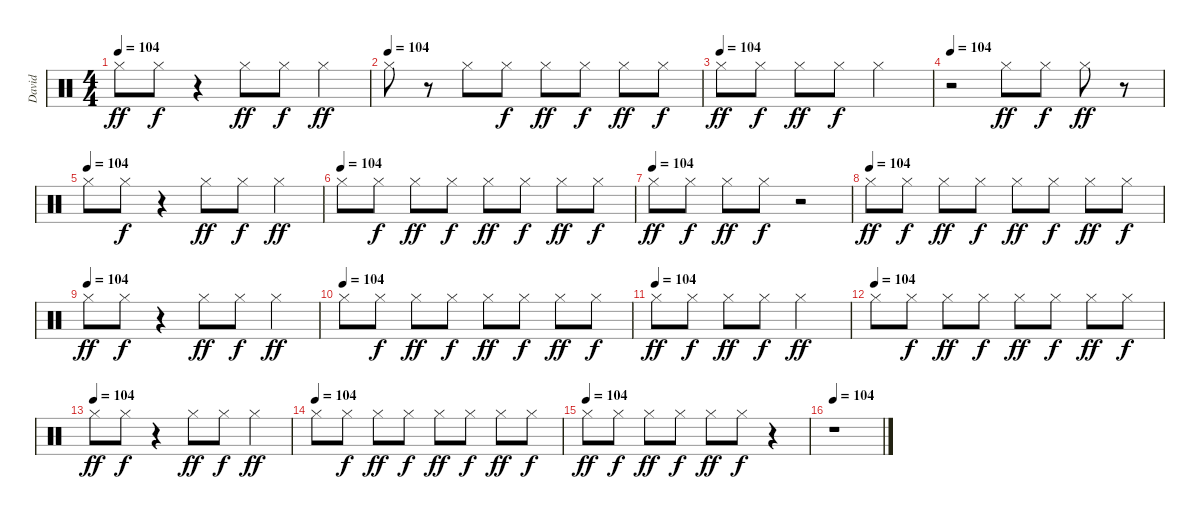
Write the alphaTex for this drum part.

\track ("David" "David") {instrument percussion}
\staff {score}
\articulation defaults
\ts (4 4)
\tempo 104
\clef neutral
\ks c "Hi-Hat (closed)".8{dy ff} "Hi-Hat (closed)".8{dy f}
r.4 "Hi-Hat (closed)".8{dy ff} "Hi-Hat (closed)".8{dy f} "Hi-Hat (closed)".4{dy ff} |
\tempo (104)
"Hi-Hat (closed)".8 r.8 "Hi-Hat (closed)".8 "Hi-Hat (closed)".8{dy f} "Hi-Hat (closed)".8{dy ff} "Hi-Hat (closed)".8{dy f} "Hi-Hat (closed)".8{dy ff} "Hi-Hat (closed)".8{dy f} |
\tempo (104)
"Hi-Hat (closed)".8{dy ff} "Hi-Hat (closed)".8{dy f} "Hi-Hat (closed)".8{dy ff} "Hi-Hat (closed)".8{dy f} "Hi-Hat (closed)".2 |
\tempo 104
r.2 "Hi-Hat (closed)".8{dy ff} "Hi-Hat (closed)".8{dy f} "Hi-Hat (closed)".8{dy ff} r.8 |
\tempo (104)
"Hi-Hat (closed)".8 "Hi-Hat (closed)".8{dy f} r.4 "Hi-Hat (closed)".8{dy ff} "Hi-Hat (closed)".8{dy f} "Hi-Hat (closed)".4{dy ff} |
\tempo (104)
"Hi-Hat (closed)".8 "Hi-Hat (closed)".8{dy f} "Hi-Hat (closed)".8{dy ff} "Hi-Hat (closed)".8{dy f} "Hi-Hat (closed)".8{dy ff} "Hi-Hat (closed)".8{dy f} "Hi-Hat (closed)".8{dy ff} "Hi-Hat (closed)".8{dy f} |
\tempo (104)
"Hi-Hat (closed)".8{dy ff} "Hi-Hat (closed)".8{dy f} "Hi-Hat (closed)".8{dy ff} "Hi-Hat (closed)".8{dy f} r.2 |
\tempo (104)
"Hi-Hat (closed)".8{dy ff} "Hi-Hat (closed)".8{dy f} "Hi-Hat (closed)".8{dy ff} "Hi-Hat (closed)".8{dy f} "Hi-Hat (closed)".8{dy ff} "Hi-Hat (closed)".8{dy f} "Hi-Hat (closed)".8{dy ff} "Hi-Hat (closed)".8{dy f} |
\tempo (104)
"Hi-Hat (closed)".8{dy ff} "Hi-Hat (closed)".8{dy f} r.4 "Hi-Hat (closed)".8{dy ff} "Hi-Hat (closed)".8{dy f} "Hi-Hat (closed)".4{dy ff} |
\tempo (104)
"Hi-Hat (closed)".8 "Hi-Hat (closed)".8{dy f} "Hi-Hat (closed)".8{dy ff} "Hi-Hat (closed)".8{dy f} "Hi-Hat (closed)".8{dy ff} "Hi-Hat (closed)".8{dy f} "Hi-Hat (closed)".8{dy ff} "Hi-Hat (closed)".8{dy f} |
\tempo (104)
"Hi-Hat (closed)".8{dy ff} "Hi-Hat (closed)".8{dy f} "Hi-Hat (closed)".8{dy ff} "Hi-Hat (closed)".8{dy f} "Hi-Hat (closed)".2{dy ff} |
\tempo (104)
"Hi-Hat (closed)".8 "Hi-Hat (closed)".8{dy f} "Hi-Hat (closed)".8{dy ff} "Hi-Hat (closed)".8{dy f} "Hi-Hat (closed)".8{dy ff} "Hi-Hat (closed)".8{dy f} "Hi-Hat (closed)".8{dy ff} "Hi-Hat (closed)".8{dy f} |
\tempo (104)
"Hi-Hat (closed)".8{dy ff} "Hi-Hat (closed)".8{dy f} r.4 "Hi-Hat (closed)".8{dy ff} "Hi-Hat (closed)".8{dy f} "Hi-Hat (closed)".4{dy ff} |
\tempo (104)
"Hi-Hat (closed)".8 "Hi-Hat (closed)".8{dy f} "Hi-Hat (closed)".8{dy ff} "Hi-Hat (closed)".8{dy f} "Hi-Hat (closed)".8{dy ff} "Hi-Hat (closed)".8{dy f} "Hi-Hat (closed)".8{dy ff} "Hi-Hat (closed)".8{dy f} |
\tempo (104)
"Hi-Hat (closed)".8{dy ff} "Hi-Hat (closed)".8{dy f} "Hi-Hat (closed)".8{dy ff} "Hi-Hat (closed)".8{dy f} "Hi-Hat (closed)".8{dy ff} "Hi-Hat (closed)".8{dy f} r.4 |
\tempo 104
r.1
